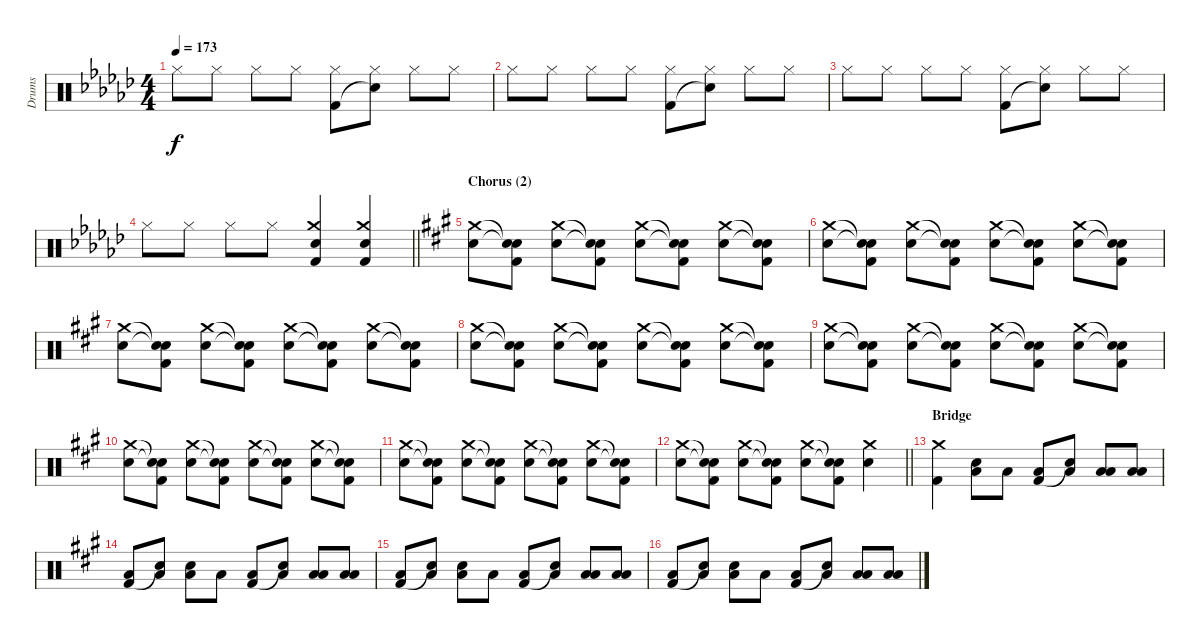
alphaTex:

\track ("Drums" "Drums") {instrument percussion}
\staff {score}
\articulation defaults
\ts (4 4)
\tempo 173
\clef neutral
\ks ebminor "Hi-Hat (closed)".8{dy f} "Hi-Hat (closed)".8 "Hi-Hat (closed)".8 "Hi-Hat (closed)".8
("Hi-Hat (closed)" "Kick (hit) 2").8 ("Hi-Hat (closed)" "Snare (hit)"{t}).8 "Hi-Hat (closed)".8 "Hi-Hat (closed)".8 |
"Hi-Hat (closed)".8 "Hi-Hat (closed)".8 "Hi-Hat (closed)".8 "Hi-Hat (closed)".8 ("Hi-Hat (closed)" "Kick (hit) 2").8 ("Hi-Hat (closed)" "Snare (hit)"{t}).8 "Hi-Hat (closed)".8 "Hi-Hat (closed)".8 |
"Hi-Hat (closed)".8 "Hi-Hat (closed)".8 "Hi-Hat (closed)".8 "Hi-Hat (closed)".8 ("Hi-Hat (closed)" "Kick (hit) 2").8 ("Hi-Hat (closed)" "Snare (hit)"{t}).8 "Hi-Hat (closed)".8 "Hi-Hat (closed)".8 |
\barLineRight lightlight "Hi-Hat (closed)".8 "Hi-Hat (closed)".8 "Hi-Hat (closed)".8 "Hi-Hat (closed)".8
("Crash medium (hit)" "Electric Snare (hit)" "Kick (hit) 2").4 ("Crash medium (hit)" "Electric Snare (hit)" "Kick (hit) 2").4 |
\section ("" "Chorus (2)")
\ks f#minor
("Crash medium (hit)" "Electric Snare (hit)").8 ("Snare (hit)"{t} "Snare (hit)"{t} "Kick (hit) 2").8 ("Crash medium (hit)" "Electric Snare (hit)").8 ("Snare (hit)"{t} "Snare (hit)"{t} "Kick (hit) 2").8 ("Crash medium (hit)" "Electric Snare (hit)").8 ("Snare (hit)"{t} "Snare (hit)"{t} "Kick (hit) 2").8 ("Crash medium (hit)" "Electric Snare (hit)").8 ("Snare (hit)"{t} "Snare (hit)"{t} "Kick (hit) 2").8 |
("Crash medium (hit)" "Electric Snare (hit)").8 ("Snare (hit)"{t} "Snare (hit)"{t} "Kick (hit) 2").8 ("Crash medium (hit)" "Electric Snare (hit)").8 ("Snare (hit)"{t} "Snare (hit)"{t} "Kick (hit) 2").8 ("Crash medium (hit)" "Electric Snare (hit)").8 ("Snare (hit)"{t} "Snare (hit)"{t} "Kick (hit) 2").8 ("Crash medium (hit)" "Electric Snare (hit)").8 ("Snare (hit)"{t} "Snare (hit)"{t} "Kick (hit) 2").8 |
("Crash medium (hit)" "Electric Snare (hit)").8 ("Snare (hit)"{t} "Snare (hit)"{t} "Kick (hit) 2").8 ("Crash medium (hit)" "Electric Snare (hit)").8 ("Snare (hit)"{t} "Snare (hit)"{t} "Kick (hit) 2").8 ("Crash medium (hit)" "Electric Snare (hit)").8 ("Snare (hit)"{t} "Snare (hit)"{t} "Kick (hit) 2").8 ("Crash medium (hit)" "Electric Snare (hit)").8 ("Snare (hit)"{t} "Snare (hit)"{t} "Kick (hit) 2").8 |
("Crash medium (hit)" "Electric Snare (hit)").8 ("Snare (hit)"{t} "Snare (hit)"{t} "Kick (hit) 2").8 ("Crash medium (hit)" "Electric Snare (hit)").8 ("Snare (hit)"{t} "Snare (hit)"{t} "Kick (hit) 2").8 ("Crash medium (hit)" "Electric Snare (hit)").8 ("Snare (hit)"{t} "Snare (hit)"{t} "Kick (hit) 2").8 ("Crash medium (hit)" "Electric Snare (hit)").8 ("Snare (hit)"{t} "Snare (hit)"{t} "Kick (hit) 2").8 |
("Crash medium (hit)" "Electric Snare (hit)").8 ("Snare (hit)"{t} "Snare (hit)"{t} "Kick (hit) 2").8 ("Crash medium (hit)" "Electric Snare (hit)").8 ("Snare (hit)"{t} "Snare (hit)"{t} "Kick (hit) 2").8 ("Crash medium (hit)" "Electric Snare (hit)").8 ("Snare (hit)"{t} "Snare (hit)"{t} "Kick (hit) 2").8 ("Crash medium (hit)" "Electric Snare (hit)").8 ("Snare (hit)"{t} "Snare (hit)"{t} "Kick (hit) 2").8 |
("Crash medium (hit)" "Electric Snare (hit)").8 ("Snare (hit)"{t} "Snare (hit)"{t} "Kick (hit) 2").8 ("Crash medium (hit)" "Electric Snare (hit)").8 ("Snare (hit)"{t} "Snare (hit)"{t} "Kick (hit) 2").8 ("Crash medium (hit)" "Electric Snare (hit)").8 ("Snare (hit)"{t} "Snare (hit)"{t} "Kick (hit) 2").8 ("Crash medium (hit)" "Electric Snare (hit)").8 ("Snare (hit)"{t} "Snare (hit)"{t} "Kick (hit) 2").8 |
("Crash medium (hit)" "Electric Snare (hit)").8 ("Snare (hit)"{t} "Snare (hit)"{t} "Kick (hit) 2").8 ("Crash medium (hit)" "Electric Snare (hit)").8 ("Snare (hit)"{t} "Snare (hit)"{t} "Kick (hit) 2").8 ("Crash medium (hit)" "Electric Snare (hit)").8 ("Snare (hit)"{t} "Snare (hit)"{t} "Kick (hit) 2").8 ("Crash medium (hit)" "Electric Snare (hit)").8 ("Snare (hit)"{t} "Snare (hit)"{t} "Kick (hit) 2").8 |
\barLineRight lightlight
("Crash medium (hit)" "Electric Snare (hit)").8 ("Snare (hit)"{t} "Snare (hit)"{t} "Kick (hit) 2").8 ("Crash medium (hit)" "Electric Snare (hit)").8 ("Snare (hit)"{t} "Snare (hit)"{t} "Kick (hit) 2").8 ("Crash medium (hit)" "Electric Snare (hit)").8 ("Snare (hit)"{t} "Snare (hit)"{t} "Kick (hit) 2").8 ("Crash medium (hit)" "Electric Snare (hit)").4 |
\section ("" "Bridge")
("Crash medium (hit)" "Kick (hit) 2").4 ("Electric Snare (hit)" "Low Floor Tom (hit)").8 "Low Floor Tom (hit)".8 ("Low Floor Tom (hit)" "Kick (hit) 2").8 ("Low Floor Tom (hit)" "Snare (hit)"{t}).8 ("Low Tom (hit)" "Low Floor Tom (hit)").8 ("Low Tom (hit)" "Low Floor Tom (hit)").8 |
("Low Floor Tom (hit)" "Kick (hit) 2").8 ("Low Floor Tom (hit)" "Snare (hit)"{t}).8 ("Electric Snare (hit)" "Low Floor Tom (hit)").8 "Low Floor Tom (hit)".8 ("Low Floor Tom (hit)" "Kick (hit) 2").8 ("Low Floor Tom (hit)" "Snare (hit)"{t}).8 ("Low Tom (hit)" "Low Floor Tom (hit)").8 ("Low Tom (hit)" "Low Floor Tom (hit)").8 |
("Low Floor Tom (hit)" "Kick (hit) 2").8 ("Low Floor Tom (hit)" "Snare (hit)"{t}).8 ("Electric Snare (hit)" "Low Floor Tom (hit)").8 "Low Floor Tom (hit)".8 ("Low Floor Tom (hit)" "Kick (hit) 2").8 ("Low Floor Tom (hit)" "Snare (hit)"{t}).8 ("Low Tom (hit)" "Low Floor Tom (hit)").8 ("Low Tom (hit)" "Low Floor Tom (hit)").8 |
("Low Floor Tom (hit)" "Kick (hit) 2").8 ("Low Floor Tom (hit)" "Snare (hit)"{t}).8 ("Electric Snare (hit)" "Low Floor Tom (hit)").8 "Low Floor Tom (hit)".8 ("Low Floor Tom (hit)" "Kick (hit) 2").8 ("Low Floor Tom (hit)" "Snare (hit)"{t}).8 ("Low Tom (hit)" "Low Floor Tom (hit)").8 ("Low Tom (hit)" "Low Floor Tom (hit)").8
